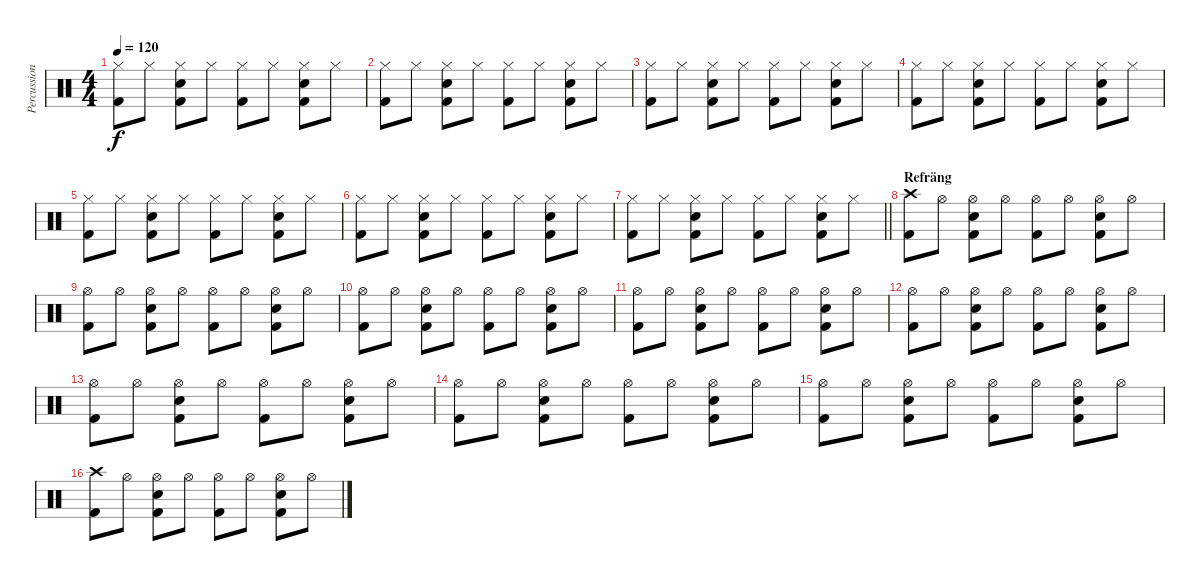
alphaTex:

\track ("Percussion" "Percussion") {instrument percussion}
\staff {score}
\articulation defaults
\ts (4 4)
\tempo 120
\clef neutral
\ks c
("Hi-Hat (closed)" "Kick (hit) 2").8{dy f} "Hi-Hat (closed)".8 ("Hi-Hat (closed)" "Snare (hit) 2" "Kick (hit) 2").8 "Hi-Hat (closed)".8 ("Hi-Hat (closed)" "Kick (hit) 2").8 "Hi-Hat (closed)".8 ("Hi-Hat (closed)" "Snare (hit) 2" "Kick (hit) 2").8 "Hi-Hat (closed)".8 |
("Hi-Hat (closed)" "Kick (hit) 2").8 "Hi-Hat (closed)".8 ("Hi-Hat (closed)" "Snare (hit) 2" "Kick (hit) 2").8 "Hi-Hat (closed)".8 ("Hi-Hat (closed)" "Kick (hit) 2").8 "Hi-Hat (closed)".8 ("Hi-Hat (closed)" "Snare (hit) 2" "Kick (hit) 2").8 "Hi-Hat (closed)".8 |
("Hi-Hat (closed)" "Kick (hit) 2").8 "Hi-Hat (closed)".8 ("Hi-Hat (closed)" "Snare (hit) 2" "Kick (hit) 2").8 "Hi-Hat (closed)".8 ("Hi-Hat (closed)" "Kick (hit) 2").8 "Hi-Hat (closed)".8 ("Hi-Hat (closed)" "Snare (hit) 2" "Kick (hit) 2").8 "Hi-Hat (closed)".8 |
("Hi-Hat (closed)" "Kick (hit) 2").8 "Hi-Hat (closed)".8 ("Hi-Hat (closed)" "Snare (hit) 2" "Kick (hit) 2").8 "Hi-Hat (closed)".8 ("Hi-Hat (closed)" "Kick (hit) 2").8 "Hi-Hat (closed)".8 ("Hi-Hat (closed)" "Snare (hit) 2" "Kick (hit) 2").8 "Hi-Hat (closed)".8 |
("Hi-Hat (closed)" "Kick (hit) 2").8 "Hi-Hat (closed)".8 ("Hi-Hat (closed)" "Snare (hit) 2" "Kick (hit) 2").8 "Hi-Hat (closed)".8 ("Hi-Hat (closed)" "Kick (hit) 2").8 "Hi-Hat (closed)".8 ("Hi-Hat (closed)" "Snare (hit) 2" "Kick (hit) 2").8 "Hi-Hat (closed)".8 |
("Hi-Hat (closed)" "Kick (hit) 2").8 "Hi-Hat (closed)".8 ("Hi-Hat (closed)" "Snare (hit) 2" "Kick (hit) 2").8 "Hi-Hat (closed)".8 ("Hi-Hat (closed)" "Kick (hit) 2").8 "Hi-Hat (closed)".8 ("Hi-Hat (closed)" "Snare (hit) 2" "Kick (hit) 2").8 "Hi-Hat (closed)".8 |
\barLineRight lightlight
("Hi-Hat (closed)" "Kick (hit) 2").8 "Hi-Hat (closed)".8 ("Hi-Hat (closed)" "Snare (hit) 2" "Kick (hit) 2").8 "Hi-Hat (closed)".8 ("Hi-Hat (closed)" "Kick (hit) 2").8 "Hi-Hat (closed)".8 ("Hi-Hat (closed)" "Snare (hit) 2" "Kick (hit) 2").8 "Hi-Hat (closed)".8 |
\section ("" "Refräng")
("Crash high (hit)" "Kick (hit) 2").8 "Hi-Hat (open)".8 ("Hi-Hat (open)" "Snare (hit) 2" "Kick (hit) 2").8 "Hi-Hat (open)".8 ("Hi-Hat (open)" "Kick (hit) 2").8 "Hi-Hat (open)".8 ("Hi-Hat (open)" "Snare (hit) 2" "Kick (hit) 2").8 "Hi-Hat (open)".8 |
("Hi-Hat (open)" "Kick (hit) 2").8 "Hi-Hat (open)".8 ("Hi-Hat (open)" "Snare (hit) 2" "Kick (hit) 2").8 "Hi-Hat (open)".8 ("Hi-Hat (open)" "Kick (hit) 2").8 "Hi-Hat (open)".8 ("Hi-Hat (open)" "Snare (hit) 2" "Kick (hit) 2").8 "Hi-Hat (open)".8 |
("Hi-Hat (open)" "Kick (hit) 2").8 "Hi-Hat (open)".8 ("Hi-Hat (open)" "Snare (hit) 2" "Kick (hit) 2").8 "Hi-Hat (open)".8 ("Hi-Hat (open)" "Kick (hit) 2").8 "Hi-Hat (open)".8 ("Hi-Hat (open)" "Snare (hit) 2" "Kick (hit) 2").8 "Hi-Hat (open)".8 |
("Hi-Hat (open)" "Kick (hit) 2").8 "Hi-Hat (open)".8 ("Hi-Hat (open)" "Snare (hit) 2" "Kick (hit) 2").8 "Hi-Hat (open)".8 ("Hi-Hat (open)" "Kick (hit) 2").8 "Hi-Hat (open)".8 ("Hi-Hat (open)" "Snare (hit) 2" "Kick (hit) 2").8 "Hi-Hat (open)".8 |
("Hi-Hat (open)" "Kick (hit) 2").8 "Hi-Hat (open)".8 ("Hi-Hat (open)" "Snare (hit) 2" "Kick (hit) 2").8 "Hi-Hat (open)".8 ("Hi-Hat (open)" "Kick (hit) 2").8 "Hi-Hat (open)".8 ("Hi-Hat (open)" "Snare (hit) 2" "Kick (hit) 2").8 "Hi-Hat (open)".8 |
("Hi-Hat (open)" "Kick (hit) 2").8 "Hi-Hat (open)".8 ("Hi-Hat (open)" "Snare (hit) 2" "Kick (hit) 2").8 "Hi-Hat (open)".8 ("Hi-Hat (open)" "Kick (hit) 2").8 "Hi-Hat (open)".8 ("Hi-Hat (open)" "Snare (hit) 2" "Kick (hit) 2").8 "Hi-Hat (open)".8 |
("Hi-Hat (open)" "Kick (hit) 2").8 "Hi-Hat (open)".8 ("Hi-Hat (open)" "Snare (hit) 2" "Kick (hit) 2").8 "Hi-Hat (open)".8 ("Hi-Hat (open)" "Kick (hit) 2").8 "Hi-Hat (open)".8 ("Hi-Hat (open)" "Snare (hit) 2" "Kick (hit) 2").8 "Hi-Hat (open)".8 |
("Hi-Hat (open)" "Kick (hit) 2").8 "Hi-Hat (open)".8 ("Hi-Hat (open)" "Snare (hit) 2" "Kick (hit) 2").8 "Hi-Hat (open)".8 ("Hi-Hat (open)" "Kick (hit) 2").8 "Hi-Hat (open)".8 ("Hi-Hat (open)" "Snare (hit) 2" "Kick (hit) 2").8 "Hi-Hat (open)".8 |
("Crash high (hit)" "Kick (hit) 2").8 "Hi-Hat (open)".8 ("Hi-Hat (open)" "Snare (hit) 2" "Kick (hit) 2").8 "Hi-Hat (open)".8 ("Hi-Hat (open)" "Kick (hit) 2").8 "Hi-Hat (open)".8 ("Hi-Hat (open)" "Snare (hit) 2" "Kick (hit) 2").8 "Hi-Hat (open)".8
